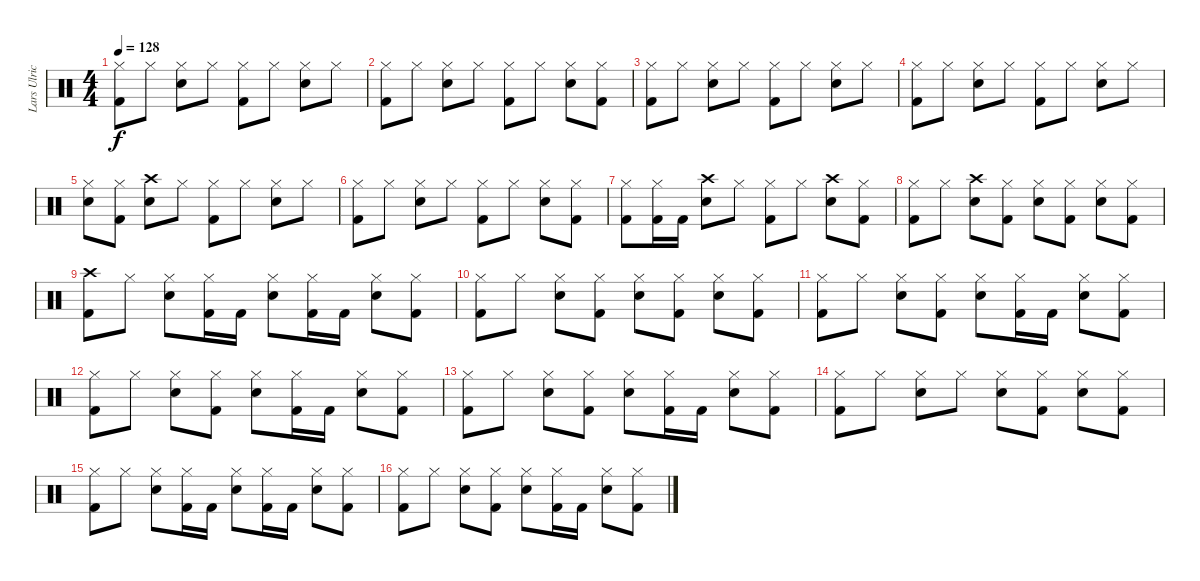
\track ("Lars Ulrich" "Lars Ulric") {instrument percussion}
\staff {score}
\articulation defaults
\ts (4 4)
\tempo 128
\clef neutral
\ks c
("Hi-Hat (closed)" "Kick (hit) 2").8{dy f} "Hi-Hat (closed)".8 ("Hi-Hat (closed)" "Electric Snare (hit)").8 "Hi-Hat (closed)".8 ("Hi-Hat (closed)" "Kick (hit) 2").8 "Hi-Hat (closed)".8 ("Hi-Hat (closed)" "Electric Snare (hit)").8 "Hi-Hat (closed)".8 |
("Hi-Hat (closed)" "Kick (hit) 2").8 "Hi-Hat (closed)".8 ("Hi-Hat (closed)" "Electric Snare (hit)").8 "Hi-Hat (closed)".8 ("Hi-Hat (closed)" "Kick (hit) 2").8 "Hi-Hat (closed)".8 ("Hi-Hat (closed)" "Electric Snare (hit)").8 ("Hi-Hat (closed)" "Kick (hit) 2").8 |
("Hi-Hat (closed)" "Kick (hit) 2").8 "Hi-Hat (closed)".8 ("Hi-Hat (closed)" "Electric Snare (hit)").8 "Hi-Hat (closed)".8 ("Hi-Hat (closed)" "Kick (hit) 2").8 "Hi-Hat (closed)".8 ("Hi-Hat (closed)" "Electric Snare (hit)").8 "Hi-Hat (closed)".8 |
("Hi-Hat (closed)" "Kick (hit) 2").8 "Hi-Hat (closed)".8 ("Hi-Hat (closed)" "Electric Snare (hit)").8 "Hi-Hat (closed)".8 ("Hi-Hat (closed)" "Kick (hit) 2").8 "Hi-Hat (closed)".8 ("Hi-Hat (closed)" "Electric Snare (hit)").8 "Hi-Hat (closed)".8 |
("Hi-Hat (closed)" "Electric Snare (hit)").8 ("Hi-Hat (closed)" "Kick (hit) 2").8 ("Crash high (hit)" "Electric Snare (hit)").8 "Hi-Hat (closed)".8 ("Hi-Hat (closed)" "Kick (hit) 2").8 "Hi-Hat (closed)".8 ("Hi-Hat (closed)" "Electric Snare (hit)").8 "Hi-Hat (closed)".8 |
("Hi-Hat (closed)" "Kick (hit) 2").8 "Hi-Hat (closed)".8 ("Hi-Hat (closed)" "Electric Snare (hit)").8 "Hi-Hat (closed)".8 ("Hi-Hat (closed)" "Kick (hit) 2").8 "Hi-Hat (closed)".8 ("Hi-Hat (closed)" "Electric Snare (hit)").8 ("Hi-Hat (closed)" "Kick (hit) 2").8 |
("Hi-Hat (closed)" "Kick (hit) 2").8 ("Hi-Hat (closed)" "Kick (hit) 2").16 "Kick (hit) 2".16 ("Crash high (hit)" "Electric Snare (hit)").8 "Hi-Hat (closed)".8 ("Hi-Hat (closed)" "Kick (hit) 2").8 "Hi-Hat (closed)".8 ("Crash high (hit)" "Electric Snare (hit)").8 ("Hi-Hat (closed)" "Kick (hit) 2").8 |
("Hi-Hat (closed)" "Kick (hit) 2").8 "Hi-Hat (closed)".8 ("Crash high (hit)" "Electric Snare (hit)").8 ("Hi-Hat (closed)" "Kick (hit) 2").8 ("Hi-Hat (closed)" "Electric Snare (hit)").8 ("Hi-Hat (closed)" "Kick (hit) 2").8 ("Hi-Hat (closed)" "Electric Snare (hit)").8 ("Hi-Hat (closed)" "Kick (hit) 2").8 |
("Crash high (hit)" "Kick (hit) 2").8 "Hi-Hat (closed)".8 ("Hi-Hat (closed)" "Electric Snare (hit)").8 ("Hi-Hat (closed)" "Kick (hit) 2").16 "Kick (hit) 2".16 ("Hi-Hat (closed)" "Electric Snare (hit)").8 ("Hi-Hat (closed)" "Kick (hit) 2").16 "Kick (hit) 2".16 ("Hi-Hat (closed)" "Electric Snare (hit)").8 ("Hi-Hat (closed)" "Kick (hit) 2").8 |
("Hi-Hat (closed)" "Kick (hit) 2").8 "Hi-Hat (closed)".8 ("Hi-Hat (closed)" "Electric Snare (hit)").8 ("Hi-Hat (closed)" "Kick (hit) 2").8 ("Hi-Hat (closed)" "Electric Snare (hit)").8 ("Hi-Hat (closed)" "Kick (hit) 2").8 ("Hi-Hat (closed)" "Electric Snare (hit)").8 ("Hi-Hat (closed)" "Kick (hit) 2").8 |
("Hi-Hat (closed)" "Kick (hit) 2").8 "Hi-Hat (closed)".8 ("Hi-Hat (closed)" "Electric Snare (hit)").8 ("Hi-Hat (closed)" "Kick (hit) 2").8 ("Hi-Hat (closed)" "Electric Snare (hit)").8 ("Hi-Hat (closed)" "Kick (hit) 2").16 "Kick (hit) 2".16 ("Hi-Hat (closed)" "Electric Snare (hit)").8 ("Hi-Hat (closed)" "Kick (hit) 2").8 |
("Hi-Hat (closed)" "Kick (hit) 2").8 "Hi-Hat (closed)".8 ("Hi-Hat (closed)" "Electric Snare (hit)").8 ("Hi-Hat (closed)" "Kick (hit) 2").8 ("Hi-Hat (closed)" "Electric Snare (hit)").8 ("Hi-Hat (closed)" "Kick (hit) 2").16 "Kick (hit) 2".16 ("Hi-Hat (closed)" "Electric Snare (hit)").8 ("Hi-Hat (closed)" "Kick (hit) 2").8 |
("Hi-Hat (closed)" "Kick (hit) 2").8 "Hi-Hat (closed)".8 ("Hi-Hat (closed)" "Electric Snare (hit)").8 ("Hi-Hat (closed)" "Kick (hit) 2").8 ("Hi-Hat (closed)" "Electric Snare (hit)").8 ("Hi-Hat (closed)" "Kick (hit) 2").16 "Kick (hit) 2".16 ("Hi-Hat (closed)" "Electric Snare (hit)").8 ("Hi-Hat (closed)" "Kick (hit) 2").8 |
("Hi-Hat (closed)" "Kick (hit) 2").8 "Hi-Hat (closed)".8 ("Hi-Hat (closed)" "Electric Snare (hit)").8 "Hi-Hat (closed)".8 ("Hi-Hat (closed)" "Electric Snare (hit)").8 ("Hi-Hat (closed)" "Kick (hit) 2").8 ("Hi-Hat (closed)" "Electric Snare (hit)").8 ("Hi-Hat (closed)" "Kick (hit) 2").8 |
("Hi-Hat (closed)" "Kick (hit) 2").8 "Hi-Hat (closed)".8 ("Hi-Hat (closed)" "Electric Snare (hit)").8 ("Hi-Hat (closed)" "Kick (hit) 2").16 "Kick (hit) 2".16 ("Hi-Hat (closed)" "Electric Snare (hit)").8 ("Hi-Hat (closed)" "Kick (hit) 2").16 "Kick (hit) 2".16 ("Hi-Hat (closed)" "Electric Snare (hit)").8 ("Hi-Hat (closed)" "Kick (hit) 2").8 |
("Hi-Hat (closed)" "Kick (hit) 2").8 "Hi-Hat (closed)".8 ("Hi-Hat (closed)" "Electric Snare (hit)").8 ("Hi-Hat (closed)" "Kick (hit) 2").8 ("Hi-Hat (closed)" "Electric Snare (hit)").8 ("Hi-Hat (closed)" "Kick (hit) 2").16 "Kick (hit) 2".16 ("Hi-Hat (closed)" "Electric Snare (hit)").8 ("Hi-Hat (closed)" "Kick (hit) 2").8
